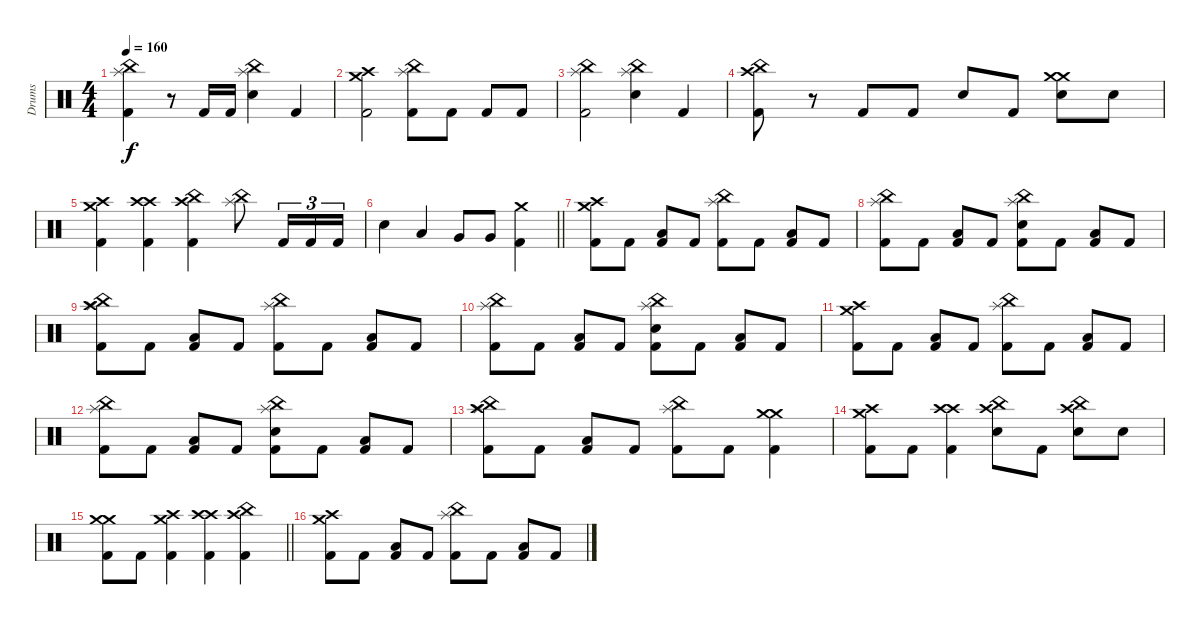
\track ("Drums" "Drums") {instrument percussion}
\staff {score}
\articulation defaults
\ts (4 4)
\tempo 160
\clef neutral
\ks c
("China (hit)" "Splash (hit)" "Kick (hit) 2").4{dy f} r.8 "Kick (hit) 2".16 "Kick (hit) 2".16 ("China (hit)" "Splash (hit)" "Electric Snare (hit)").4 "Kick (hit) 2".4 |
("Crash high (hit)" "Crash medium (hit)" "Kick (hit) 2").2 ("China (hit)" "Splash (hit)" "Kick (hit) 2").8 "Kick (hit) 2".8 "Kick (hit) 2".8 "Kick (hit) 2".8 |
("China (hit)" "Splash (hit)" "Kick (hit) 2").2 ("China (hit)" "Splash (hit)" "Electric Snare (hit)").4 "Kick (hit) 2".4 |
("Crash high (hit)" "China (hit)" "Kick (hit) 2").8 r.8 "Kick (hit) 2".8 "Kick (hit) 2".8 "Electric Snare (hit)".8 "Kick (hit) 2".8 ("Crash medium (hit)" "Crash medium (hit)" "Electric Snare (hit)").8 "Electric Snare (hit)".8 |
("Crash high (hit)" "Crash medium (hit)" "Kick (hit) 2").4 ("Crash high (hit)" "Crash high (hit)" "Kick (hit) 2").4 ("Crash high (hit)" "China (hit)" "Kick (hit) 2").4 ("China (hit)" "Splash (hit)").8 "Kick (hit) 2".16{tu (3 2)} "Kick (hit) 2".16{tu (3 2)} "Kick (hit) 2".16{tu (3 2)} |
\barLineRight lightlight "Electric Snare (hit)".4 "Low Tom (hit)".4 "Very Low Tom (hit)".8 "Very Low Tom (hit)".8
("Crash medium (hit)" "Kick (hit) 2").4 |
\section ("" "")
("Crash high (hit)" "Crash medium (hit)" "Kick (hit) 2").8 "Kick (hit) 2".8 ("Low Floor Tom (hit)" "Kick (hit) 2").8 "Kick (hit) 2".8 ("China (hit)" "Splash (hit)" "Kick (hit) 2").8 "Kick (hit) 2".8 ("Low Floor Tom (hit)" "Kick (hit) 2").8 "Kick (hit) 2".8 |
("China (hit)" "Splash (hit)" "Kick (hit) 2").8 "Kick (hit) 2".8 ("Low Floor Tom (hit)" "Kick (hit) 2").8 "Kick (hit) 2".8 ("China (hit)" "Splash (hit)" "Electric Snare (hit)" "Kick (hit) 2").8 "Kick (hit) 2".8 ("Low Floor Tom (hit)" "Kick (hit) 2").8 "Kick (hit) 2".8 |
("Crash high (hit)" "China (hit)" "Splash (hit)" "Kick (hit) 2").8 "Kick (hit) 2".8 ("Low Floor Tom (hit)" "Kick (hit) 2").8 "Kick (hit) 2".8 ("China (hit)" "Splash (hit)" "Kick (hit) 2").8 "Kick (hit) 2".8 ("Low Floor Tom (hit)" "Kick (hit) 2").8 "Kick (hit) 2".8 |
("China (hit)" "Splash (hit)" "Kick (hit) 2").8 "Kick (hit) 2".8 ("Low Floor Tom (hit)" "Kick (hit) 2").8 "Kick (hit) 2".8 ("China (hit)" "Splash (hit)" "Electric Snare (hit)" "Kick (hit) 2").8 "Kick (hit) 2".8 ("Low Floor Tom (hit)" "Kick (hit) 2").8 "Kick (hit) 2".8 |
("Crash high (hit)" "Crash medium (hit)" "Kick (hit) 2").8 "Kick (hit) 2".8 ("Low Floor Tom (hit)" "Kick (hit) 2").8 "Kick (hit) 2".8 ("China (hit)" "Splash (hit)" "Kick (hit) 2").8 "Kick (hit) 2".8 ("Low Floor Tom (hit)" "Kick (hit) 2").8 "Kick (hit) 2".8 |
("China (hit)" "Splash (hit)" "Kick (hit) 2").8 "Kick (hit) 2".8 ("Low Floor Tom (hit)" "Kick (hit) 2").8 "Kick (hit) 2".8 ("China (hit)" "Splash (hit)" "Electric Snare (hit)" "Kick (hit) 2").8 "Kick (hit) 2".8 ("Low Floor Tom (hit)" "Kick (hit) 2").8 "Kick (hit) 2".8 |
("Crash high (hit)" "China (hit)" "Splash (hit)" "Kick (hit) 2").8 "Kick (hit) 2".8 ("Low Floor Tom (hit)" "Kick (hit) 2").8 "Kick (hit) 2".8 ("China (hit)" "Splash (hit)" "Kick (hit) 2").8 "Kick (hit) 2".8 ("Crash medium (hit)" "Crash medium (hit)" "Kick (hit) 2").4 |
("Crash high (hit)" "Crash medium (hit)" "Kick (hit) 2").8 "Kick (hit) 2".8 ("Crash high (hit)" "Crash high (hit)" "Kick (hit) 2").4 ("Crash high (hit)" "China (hit)" "Electric Snare (hit)").8 "Kick (hit) 2".8 ("Crash high (hit)" "China (hit)" "Electric Snare (hit)").8 "Electric Snare (hit)".8 |
\barLineRight lightlight
("Crash medium (hit)" "Crash medium (hit)" "Kick (hit) 2").8 "Kick (hit) 2".8 ("Crash medium (hit)" "Crash high (hit)" "Kick (hit) 2").4 ("Crash high (hit)" "Crash high (hit)" "Kick (hit) 2").4 ("Crash high (hit)" "China (hit)" "Kick (hit) 2").4 |
\section ("" "")
("Crash high (hit)" "Crash medium (hit)" "Kick (hit) 2").8 "Kick (hit) 2".8 ("Low Floor Tom (hit)" "Kick (hit) 2").8 "Kick (hit) 2".8 ("China (hit)" "Splash (hit)" "Kick (hit) 2").8 "Kick (hit) 2".8 ("Low Floor Tom (hit)" "Kick (hit) 2").8 "Kick (hit) 2".8
